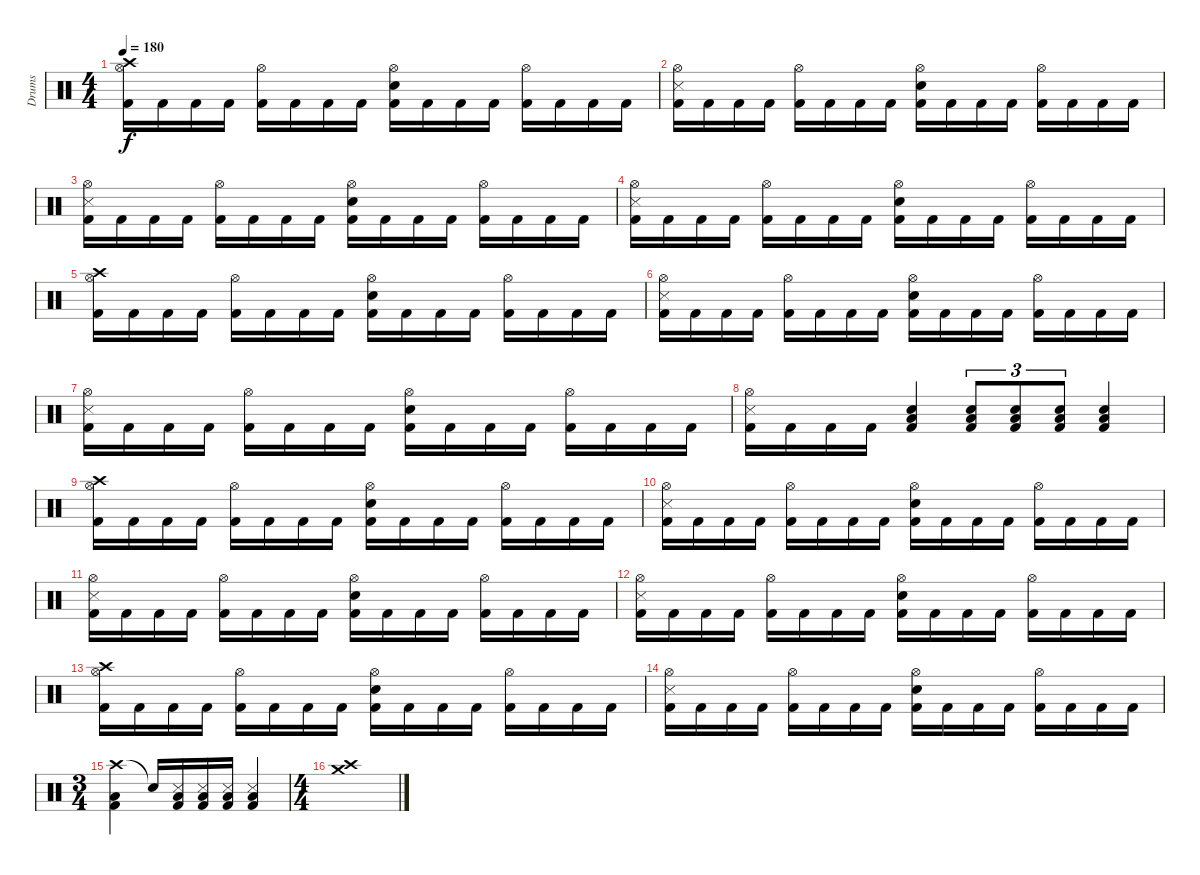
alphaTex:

\track ("Drums" "Drums") {instrument percussion}
\staff {score}
\articulation defaults
\ts (4 4)
\tempo 180
\clef neutral
\ks c
("Crash high (hit)" "Hi-Hat (open)" "Kick (hit) 2").16{dy f} "Kick (hit) 2".16 "Kick (hit) 2".16 "Kick (hit) 2".16 ("Hi-Hat (open)" "Kick (hit) 2").16 "Kick (hit) 2".16 "Kick (hit) 2".16 "Kick (hit) 2".16 ("Hi-Hat (open)" "Electric Snare (hit)" "Kick (hit) 2").16 "Kick (hit) 2".16 "Kick (hit) 2".16 "Kick (hit) 2".16 ("Hi-Hat (open)" "Kick (hit) 2").16 "Kick (hit) 2".16 "Kick (hit) 2".16 "Kick (hit) 2".16 |
("Snare (side stick) 3" "Hi-Hat (open)" "Kick (hit) 2").16 "Kick (hit) 2".16 "Kick (hit) 2".16 "Kick (hit) 2".16 ("Hi-Hat (open)" "Kick (hit) 2").16 "Kick (hit) 2".16 "Kick (hit) 2".16 "Kick (hit) 2".16 ("Hi-Hat (open)" "Electric Snare (hit)" "Kick (hit) 2").16 "Kick (hit) 2".16 "Kick (hit) 2".16 "Kick (hit) 2".16 ("Hi-Hat (open)" "Kick (hit) 2").16 "Kick (hit) 2".16 "Kick (hit) 2".16 "Kick (hit) 2".16 |
("Snare (side stick) 3" "Hi-Hat (open)" "Kick (hit) 2").16 "Kick (hit) 2".16 "Kick (hit) 2".16 "Kick (hit) 2".16 ("Hi-Hat (open)" "Kick (hit) 2").16 "Kick (hit) 2".16 "Kick (hit) 2".16 "Kick (hit) 2".16 ("Hi-Hat (open)" "Electric Snare (hit)" "Kick (hit) 2").16 "Kick (hit) 2".16 "Kick (hit) 2".16 "Kick (hit) 2".16 ("Hi-Hat (open)" "Kick (hit) 2").16 "Kick (hit) 2".16 "Kick (hit) 2".16 "Kick (hit) 2".16 |
("Snare (side stick) 3" "Hi-Hat (open)" "Kick (hit) 2").16 "Kick (hit) 2".16 "Kick (hit) 2".16 "Kick (hit) 2".16 ("Hi-Hat (open)" "Kick (hit) 2").16 "Kick (hit) 2".16 "Kick (hit) 2".16 "Kick (hit) 2".16 ("Hi-Hat (open)" "Electric Snare (hit)" "Kick (hit) 2").16 "Kick (hit) 2".16 "Kick (hit) 2".16 "Kick (hit) 2".16 ("Hi-Hat (open)" "Kick (hit) 2").16 "Kick (hit) 2".16 "Kick (hit) 2".16 "Kick (hit) 2".16 |
("Crash high (hit)" "Hi-Hat (open)" "Kick (hit) 2").16 "Kick (hit) 2".16 "Kick (hit) 2".16 "Kick (hit) 2".16 ("Hi-Hat (open)" "Kick (hit) 2").16 "Kick (hit) 2".16 "Kick (hit) 2".16 "Kick (hit) 2".16 ("Hi-Hat (open)" "Electric Snare (hit)" "Kick (hit) 2").16 "Kick (hit) 2".16 "Kick (hit) 2".16 "Kick (hit) 2".16 ("Hi-Hat (open)" "Kick (hit) 2").16 "Kick (hit) 2".16 "Kick (hit) 2".16 "Kick (hit) 2".16 |
("Snare (side stick) 3" "Hi-Hat (open)" "Kick (hit) 2").16 "Kick (hit) 2".16 "Kick (hit) 2".16 "Kick (hit) 2".16 ("Hi-Hat (open)" "Kick (hit) 2").16 "Kick (hit) 2".16 "Kick (hit) 2".16 "Kick (hit) 2".16 ("Hi-Hat (open)" "Electric Snare (hit)" "Kick (hit) 2").16 "Kick (hit) 2".16 "Kick (hit) 2".16 "Kick (hit) 2".16 ("Hi-Hat (open)" "Kick (hit) 2").16 "Kick (hit) 2".16 "Kick (hit) 2".16 "Kick (hit) 2".16 |
("Snare (side stick) 3" "Hi-Hat (open)" "Kick (hit) 2").16 "Kick (hit) 2".16 "Kick (hit) 2".16 "Kick (hit) 2".16 ("Hi-Hat (open)" "Kick (hit) 2").16 "Kick (hit) 2".16 "Kick (hit) 2".16 "Kick (hit) 2".16 ("Hi-Hat (open)" "Electric Snare (hit)" "Kick (hit) 2").16 "Kick (hit) 2".16 "Kick (hit) 2".16 "Kick (hit) 2".16 ("Hi-Hat (open)" "Kick (hit) 2").16 "Kick (hit) 2".16 "Kick (hit) 2".16 "Kick (hit) 2".16 |
("Snare (side stick) 3" "Hi-Hat (open)" "Kick (hit) 2").16 "Kick (hit) 2".16 "Kick (hit) 2".16 "Kick (hit) 2".16 ("Low Floor Tom (hit)" "Electric Snare (hit)" "Kick (hit) 2").4 ("Low Floor Tom (hit)" "Electric Snare (hit)" "Kick (hit) 2").8{tu (3 2)} ("Low Floor Tom (hit)" "Electric Snare (hit)" "Kick (hit) 2").8{tu (3 2)} ("Low Floor Tom (hit)" "Electric Snare (hit)" "Kick (hit) 2").8{tu (3 2)} ("Low Floor Tom (hit)" "Electric Snare (hit)" "Kick (hit) 2").4 |
("Crash high (hit)" "Hi-Hat (open)" "Kick (hit) 2").16 "Kick (hit) 2".16 "Kick (hit) 2".16 "Kick (hit) 2".16 ("Hi-Hat (open)" "Kick (hit) 2").16 "Kick (hit) 2".16 "Kick (hit) 2".16 "Kick (hit) 2".16 ("Hi-Hat (open)" "Electric Snare (hit)" "Kick (hit) 2").16 "Kick (hit) 2".16 "Kick (hit) 2".16 "Kick (hit) 2".16 ("Hi-Hat (open)" "Kick (hit) 2").16 "Kick (hit) 2".16 "Kick (hit) 2".16 "Kick (hit) 2".16 |
("Snare (side stick) 3" "Hi-Hat (open)" "Kick (hit) 2").16 "Kick (hit) 2".16 "Kick (hit) 2".16 "Kick (hit) 2".16 ("Hi-Hat (open)" "Kick (hit) 2").16 "Kick (hit) 2".16 "Kick (hit) 2".16 "Kick (hit) 2".16 ("Hi-Hat (open)" "Electric Snare (hit)" "Kick (hit) 2").16 "Kick (hit) 2".16 "Kick (hit) 2".16 "Kick (hit) 2".16 ("Hi-Hat (open)" "Kick (hit) 2").16 "Kick (hit) 2".16 "Kick (hit) 2".16 "Kick (hit) 2".16 |
("Snare (side stick) 3" "Hi-Hat (open)" "Kick (hit) 2").16 "Kick (hit) 2".16 "Kick (hit) 2".16 "Kick (hit) 2".16 ("Hi-Hat (open)" "Kick (hit) 2").16 "Kick (hit) 2".16 "Kick (hit) 2".16 "Kick (hit) 2".16 ("Hi-Hat (open)" "Electric Snare (hit)" "Kick (hit) 2").16 "Kick (hit) 2".16 "Kick (hit) 2".16 "Kick (hit) 2".16 ("Hi-Hat (open)" "Kick (hit) 2").16 "Kick (hit) 2".16 "Kick (hit) 2".16 "Kick (hit) 2".16 |
("Snare (side stick) 3" "Hi-Hat (open)" "Kick (hit) 2").16 "Kick (hit) 2".16 "Kick (hit) 2".16 "Kick (hit) 2".16 ("Hi-Hat (open)" "Kick (hit) 2").16 "Kick (hit) 2".16 "Kick (hit) 2".16 "Kick (hit) 2".16 ("Hi-Hat (open)" "Electric Snare (hit)" "Kick (hit) 2").16 "Kick (hit) 2".16 "Kick (hit) 2".16 "Kick (hit) 2".16 ("Hi-Hat (open)" "Kick (hit) 2").16 "Kick (hit) 2".16 "Kick (hit) 2".16 "Kick (hit) 2".16 |
("Crash high (hit)" "Hi-Hat (open)" "Kick (hit) 2").16 "Kick (hit) 2".16 "Kick (hit) 2".16 "Kick (hit) 2".16 ("Hi-Hat (open)" "Kick (hit) 2").16 "Kick (hit) 2".16 "Kick (hit) 2".16 "Kick (hit) 2".16 ("Hi-Hat (open)" "Electric Snare (hit)" "Kick (hit) 2").16 "Kick (hit) 2".16 "Kick (hit) 2".16 "Kick (hit) 2".16 ("Hi-Hat (open)" "Kick (hit) 2").16 "Kick (hit) 2".16 "Kick (hit) 2".16 "Kick (hit) 2".16 |
("Snare (side stick) 3" "Hi-Hat (open)" "Kick (hit) 2").16 "Kick (hit) 2".16 "Kick (hit) 2".16 "Kick (hit) 2".16 ("Hi-Hat (open)" "Kick (hit) 2").16 "Kick (hit) 2".16 "Kick (hit) 2".16 "Kick (hit) 2".16 ("Hi-Hat (open)" "Electric Snare (hit)" "Kick (hit) 2").16 "Kick (hit) 2".16 "Kick (hit) 2".16 "Kick (hit) 2".16 ("Hi-Hat (open)" "Kick (hit) 2").16 "Kick (hit) 2".16 "Kick (hit) 2".16 "Kick (hit) 2".16 |
\ts (3 4)
("Crash high (hit)" "Low Tom (hit)" "Kick (hit) 2").4 "Snare (hit)"{t}.16 ("Snare (side stick) 3" "Low Floor Tom (hit)" "Kick (hit) 2").16 ("Snare (side stick) 3" "Low Floor Tom (hit)" "Kick (hit) 2").16 ("Snare (side stick) 3" "Low Floor Tom (hit)" "Kick (hit) 2").16 ("Snare (side stick) 3" "Low Floor Tom (hit)" "Kick (hit) 2").4 |
\ts (4 4)
("Crash high (hit)" "Crash medium (hit)").1
